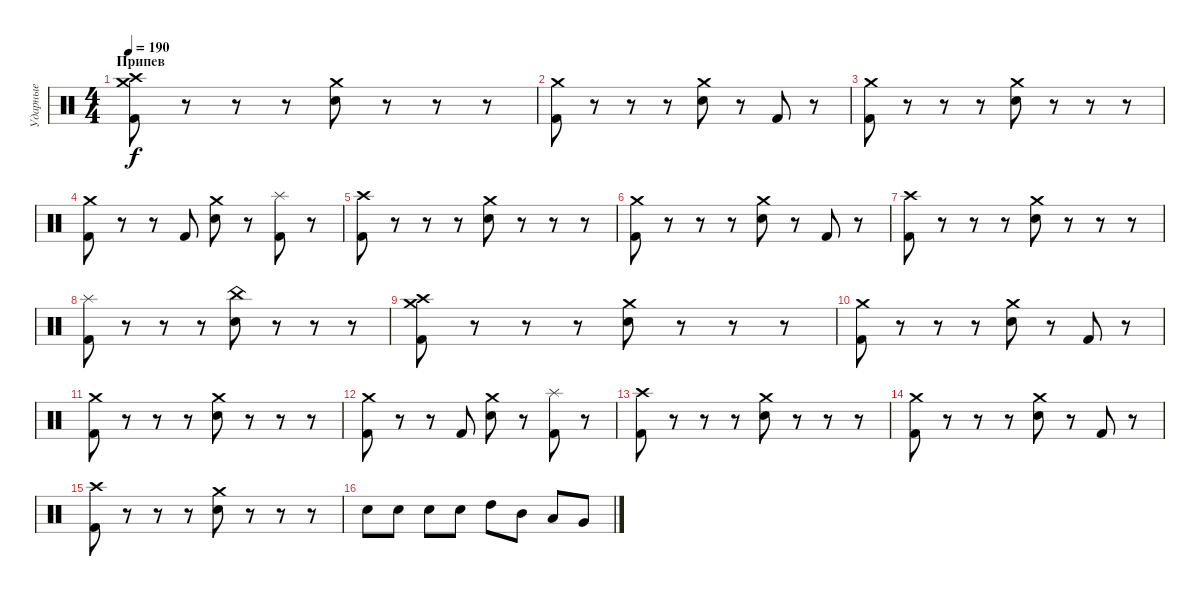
\track ("Ударные" "Ударные") {instrument percussion}
\staff {score}
\articulation defaults
\ts (4 4)
\section ("" "Припев")
\tempo 190
\clef neutral
\ks c
("Kick (hit) 2" "Crash high (hit)" "Crash medium (hit)").8{dy f} r.8 r.8 r.8 ("Electric Snare (hit)" "Crash medium (hit)").8 r.8 r.8 r.8 |
("Kick (hit) 2" "Crash medium (hit)").8 r.8 r.8 r.8 ("Electric Snare (hit)" "Crash medium (hit)").8 r.8 "Kick (hit) 2".8 r.8 |
("Kick (hit) 2" "Crash medium (hit)").8 r.8 r.8 r.8 ("Electric Snare (hit)" "Crash medium (hit)").8 r.8 r.8 r.8 |
("Kick (hit) 2" "Crash medium (hit)").8 r.8 r.8 "Kick (hit) 2".8 ("Electric Snare (hit)" "Crash medium (hit)").8 r.8 ("Kick (hit) 2" "Splash (hit)").8 r.8 |
("Kick (hit) 2" "Crash high (hit)").8 r.8 r.8 r.8 ("Electric Snare (hit)" "Crash medium (hit)").8 r.8 r.8 r.8 |
("Kick (hit) 2" "Crash medium (hit)").8 r.8 r.8 r.8 ("Electric Snare (hit)" "Crash medium (hit)").8 r.8 "Kick (hit) 2".8 r.8 |
("Kick (hit) 2" "Crash high (hit)").8 r.8 r.8 r.8 ("Electric Snare (hit)" "Crash medium (hit)").8 r.8 r.8 r.8 |
("Kick (hit) 2" "Splash (hit)").8 r.8 r.8 r.8 ("Electric Snare (hit)" "China (hit)").8 r.8 r.8 r.8 |
("Kick (hit) 2" "Crash high (hit)" "Crash medium (hit)").8 r.8 r.8 r.8 ("Electric Snare (hit)" "Crash medium (hit)").8 r.8 r.8 r.8 |
("Kick (hit) 2" "Crash medium (hit)").8 r.8 r.8 r.8 ("Electric Snare (hit)" "Crash medium (hit)").8 r.8 "Kick (hit) 2".8 r.8 |
("Kick (hit) 2" "Crash medium (hit)").8 r.8 r.8 r.8 ("Electric Snare (hit)" "Crash medium (hit)").8 r.8 r.8 r.8 |
("Kick (hit) 2" "Crash medium (hit)").8 r.8 r.8 "Kick (hit) 2".8 ("Electric Snare (hit)" "Crash medium (hit)").8 r.8 ("Kick (hit) 2" "Splash (hit)").8 r.8 |
("Kick (hit) 2" "Crash high (hit)").8 r.8 r.8 r.8 ("Electric Snare (hit)" "Crash medium (hit)").8 r.8 r.8 r.8 |
("Kick (hit) 2" "Crash medium (hit)").8 r.8 r.8 r.8 ("Electric Snare (hit)" "Crash medium (hit)").8 r.8 "Kick (hit) 2".8 r.8 |
("Kick (hit) 2" "Crash high (hit)").8 r.8 r.8 r.8 ("Electric Snare (hit)" "Crash medium (hit)").8 r.8 r.8 r.8 |
"Electric Snare (hit)".8 "Electric Snare (hit)".8 "Electric Snare (hit)".8 "Electric Snare (hit)".8 "High Tom (hit)".8 "Mid Tom (hit)".8 "Low Tom (hit)".8 "Very Low Tom (hit)".8
